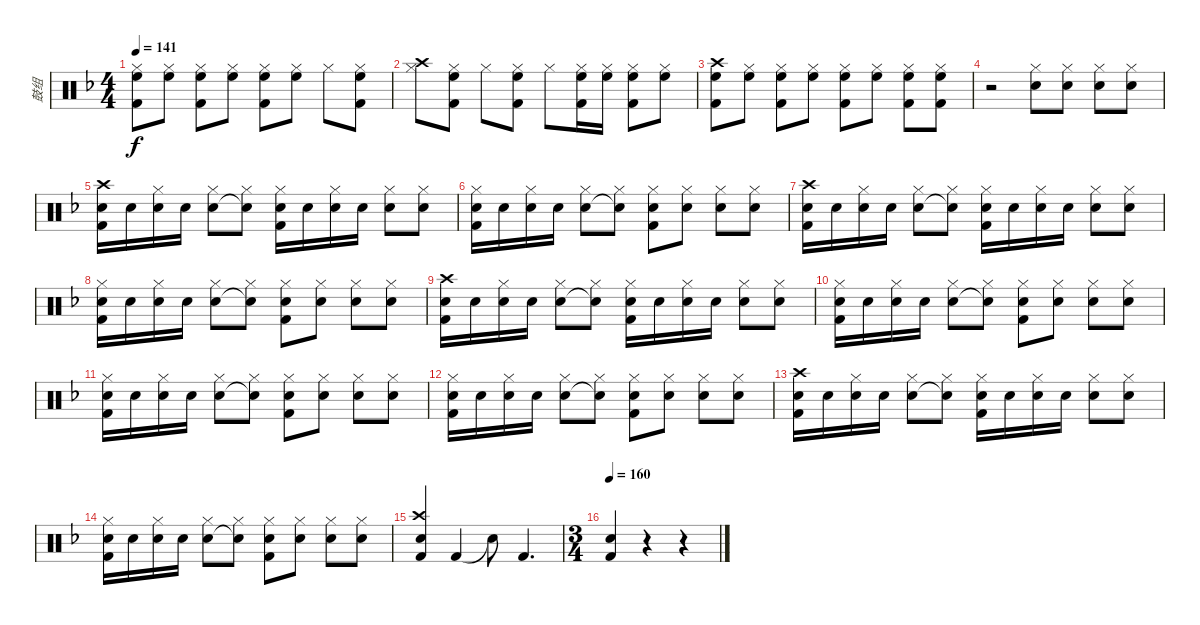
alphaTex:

\track ("鼓组" "鼓组") {instrument percussion}
\staff {score}
\articulation defaults
\ts (4 4)
\tempo 141
\clef neutral
\ks f
("High Floor Tom (hit)" "Hi-Hat (closed)" "Kick (hit) 2").8{dy f} ("High Floor Tom (hit)" "Hi-Hat (closed)").8 ("High Floor Tom (hit)" "Hi-Hat (closed)" "Kick (hit) 2").8 ("High Floor Tom (hit)" "Hi-Hat (closed)").8 ("High Floor Tom (hit)" "Hi-Hat (closed)" "Kick (hit) 2").8 ("High Floor Tom (hit)" "Hi-Hat (closed)").8 "Hi-Hat (closed)".8 ("High Floor Tom (hit)" "Hi-Hat (closed)" "Kick (hit) 2").8 |
("Hi-Hat (closed)" "Crash high (hit)").8 ("High Floor Tom (hit)" "Hi-Hat (closed)" "Kick (hit) 2").8 "Hi-Hat (closed)".8 ("High Floor Tom (hit)" "Hi-Hat (closed)" "Kick (hit) 2").8 "Hi-Hat (closed)".8 ("High Floor Tom (hit)" "Hi-Hat (closed)" "Kick (hit) 2").16 ("High Floor Tom (hit)" "Hi-Hat (closed)").16 ("High Floor Tom (hit)" "Hi-Hat (closed)" "Kick (hit) 2").8 ("High Floor Tom (hit)" "Hi-Hat (closed)").8 |
("High Floor Tom (hit)" "Crash high (hit)" "Kick (hit) 2").8 ("High Floor Tom (hit)" "Hi-Hat (closed)").8 ("High Floor Tom (hit)" "Hi-Hat (closed)" "Kick (hit) 2").8 ("High Floor Tom (hit)" "Hi-Hat (closed)").8 ("High Floor Tom (hit)" "Hi-Hat (closed)" "Kick (hit) 2").8 ("High Floor Tom (hit)" "Hi-Hat (closed)").8 ("High Floor Tom (hit)" "Hi-Hat (closed)" "Kick (hit) 2").8 ("High Floor Tom (hit)" "Hi-Hat (closed)" "Kick (hit) 2").8 |
r.2{volume 13} ("Snare (hit) 2" "Hi-Hat (closed)").8 ("Snare (hit) 2" "Hi-Hat (closed)").8 ("Snare (hit) 2" "Hi-Hat (closed)").8 ("Snare (hit) 2" "Hi-Hat (closed)").8 |
("Snare (hit) 2" "Crash high (hit)" "Kick (hit) 2").16{volume 10} "Snare (hit) 2".16 ("Snare (hit) 2" "Hi-Hat (closed)").16 "Snare (hit) 2".16 ("Snare (hit) 2" "Hi-Hat (closed)").8 ("Snare (hit)"{t} "Hi-Hat (closed)").8 ("Snare (hit) 2" "Hi-Hat (closed)" "Kick (hit) 2").16 "Snare (hit) 2".16 ("Snare (hit) 2" "Hi-Hat (closed)").16 "Snare (hit) 2".16 ("Snare (hit) 2" "Hi-Hat (closed)").8 ("Snare (hit) 2" "Hi-Hat (closed)").8 |
("Snare (hit) 2" "Hi-Hat (closed)" "Kick (hit) 2").16 "Snare (hit) 2".16 ("Snare (hit) 2" "Hi-Hat (closed)").16 "Snare (hit) 2".16 ("Snare (hit) 2" "Hi-Hat (closed)").8 ("Snare (hit) 2"{t} "Hi-Hat (closed)").8 ("Snare (hit) 2" "Hi-Hat (closed)" "Kick (hit) 2").8 ("Snare (hit) 2" "Hi-Hat (closed)").8 ("Snare (hit) 2" "Hi-Hat (closed)").8 ("Snare (hit) 2" "Hi-Hat (closed)").8 |
("Snare (hit) 2" "Crash high (hit)" "Kick (hit) 2").16 "Snare (hit) 2".16 ("Snare (hit) 2" "Hi-Hat (closed)").16 "Snare (hit) 2".16 ("Snare (hit) 2" "Hi-Hat (closed)").8 ("Snare (hit)"{t} "Hi-Hat (closed)").8 ("Snare (hit) 2" "Hi-Hat (closed)" "Kick (hit) 2").16 "Snare (hit) 2".16 ("Snare (hit) 2" "Hi-Hat (closed)").16 "Snare (hit) 2".16 ("Snare (hit) 2" "Hi-Hat (closed)").8 ("Snare (hit) 2" "Hi-Hat (closed)").8 |
("Snare (hit) 2" "Hi-Hat (closed)" "Kick (hit) 2").16 "Snare (hit) 2".16 ("Snare (hit) 2" "Hi-Hat (closed)").16 "Snare (hit) 2".16 ("Snare (hit) 2" "Hi-Hat (closed)").8 ("Snare (hit) 2"{t} "Hi-Hat (closed)").8 ("Snare (hit) 2" "Hi-Hat (closed)" "Kick (hit) 2").8 ("Snare (hit) 2" "Hi-Hat (closed)").8 ("Snare (hit) 2" "Hi-Hat (closed)").8 ("Snare (hit) 2" "Hi-Hat (closed)").8 |
("Snare (hit) 2" "Crash high (hit)" "Kick (hit) 2").16 "Snare (hit) 2".16 ("Snare (hit) 2" "Hi-Hat (closed)").16 "Snare (hit) 2".16 ("Snare (hit) 2" "Hi-Hat (closed)").8 ("Snare (hit)"{t} "Hi-Hat (closed)").8 ("Snare (hit) 2" "Hi-Hat (closed)" "Kick (hit) 2").16 "Snare (hit) 2".16 ("Snare (hit) 2" "Hi-Hat (closed)").16 "Snare (hit) 2".16 ("Snare (hit) 2" "Hi-Hat (closed)").8 ("Snare (hit) 2" "Hi-Hat (closed)").8 |
("Snare (hit) 2" "Hi-Hat (closed)" "Kick (hit) 2").16 "Snare (hit) 2".16 ("Snare (hit) 2" "Hi-Hat (closed)").16 "Snare (hit) 2".16 ("Snare (hit) 2" "Hi-Hat (closed)").8 ("Snare (hit) 2"{t} "Hi-Hat (closed)").8 ("Snare (hit) 2" "Hi-Hat (closed)" "Kick (hit) 2").8 ("Snare (hit) 2" "Hi-Hat (closed)").8 ("Snare (hit) 2" "Hi-Hat (closed)").8 ("Snare (hit) 2" "Hi-Hat (closed)").8 |
("Snare (hit) 2" "Hi-Hat (closed)" "Kick (hit) 2").16 "Snare (hit) 2".16 ("Snare (hit) 2" "Hi-Hat (closed)").16 "Snare (hit) 2".16 ("Snare (hit) 2" "Hi-Hat (closed)").8 ("Snare (hit) 2"{t} "Hi-Hat (closed)").8 ("Snare (hit) 2" "Hi-Hat (closed)" "Kick (hit) 2").8 ("Snare (hit) 2" "Hi-Hat (closed)").8 ("Snare (hit) 2" "Hi-Hat (closed)").8 ("Snare (hit) 2" "Hi-Hat (closed)").8 |
("Snare (hit) 2" "Hi-Hat (closed)" "Kick (hit) 2").16 "Snare (hit) 2".16 ("Snare (hit) 2" "Hi-Hat (closed)").16 "Snare (hit) 2".16 ("Snare (hit) 2" "Hi-Hat (closed)").8 ("Snare (hit) 2"{t} "Hi-Hat (closed)").8 ("Snare (hit) 2" "Hi-Hat (closed)" "Kick (hit) 2").8 ("Snare (hit) 2" "Hi-Hat (closed)").8 ("Snare (hit) 2" "Hi-Hat (closed)").8 ("Snare (hit) 2" "Hi-Hat (closed)").8 |
("Snare (hit) 2" "Crash high (hit)" "Kick (hit) 2").16 "Snare (hit) 2".16 ("Snare (hit) 2" "Hi-Hat (closed)").16 "Snare (hit) 2".16 ("Snare (hit) 2" "Hi-Hat (closed)").8 ("Snare (hit)"{t} "Hi-Hat (closed)").8 ("Snare (hit) 2" "Hi-Hat (closed)" "Kick (hit) 2").16 "Snare (hit) 2".16 ("Snare (hit) 2" "Hi-Hat (closed)").16 "Snare (hit) 2".16 ("Snare (hit) 2" "Hi-Hat (closed)").8 ("Snare (hit) 2" "Hi-Hat (closed)").8 |
("Snare (hit) 2" "Hi-Hat (closed)" "Kick (hit) 2").16 "Snare (hit) 2".16 ("Snare (hit) 2" "Hi-Hat (closed)").16 "Snare (hit) 2".16 ("Snare (hit) 2" "Hi-Hat (closed)").8 ("Snare (hit) 2"{t} "Hi-Hat (closed)").8 ("Snare (hit) 2" "Hi-Hat (closed)" "Kick (hit) 2").8 ("Snare (hit) 2" "Hi-Hat (closed)").8 ("Snare (hit) 2" "Hi-Hat (closed)").8 ("Snare (hit) 2" "Hi-Hat (closed)").8 |
("Snare (hit) 2" "Crash high (hit)" "Kick (hit) 2").4 "Kick (hit) 2".4 "Snare (hit)"{t}.8 "Kick (hit) 2".4{d} |
\ts (3 4)
\tempo 160
("Snare (hit) 2" "Kick (hit) 2").4 r.4 r.4
